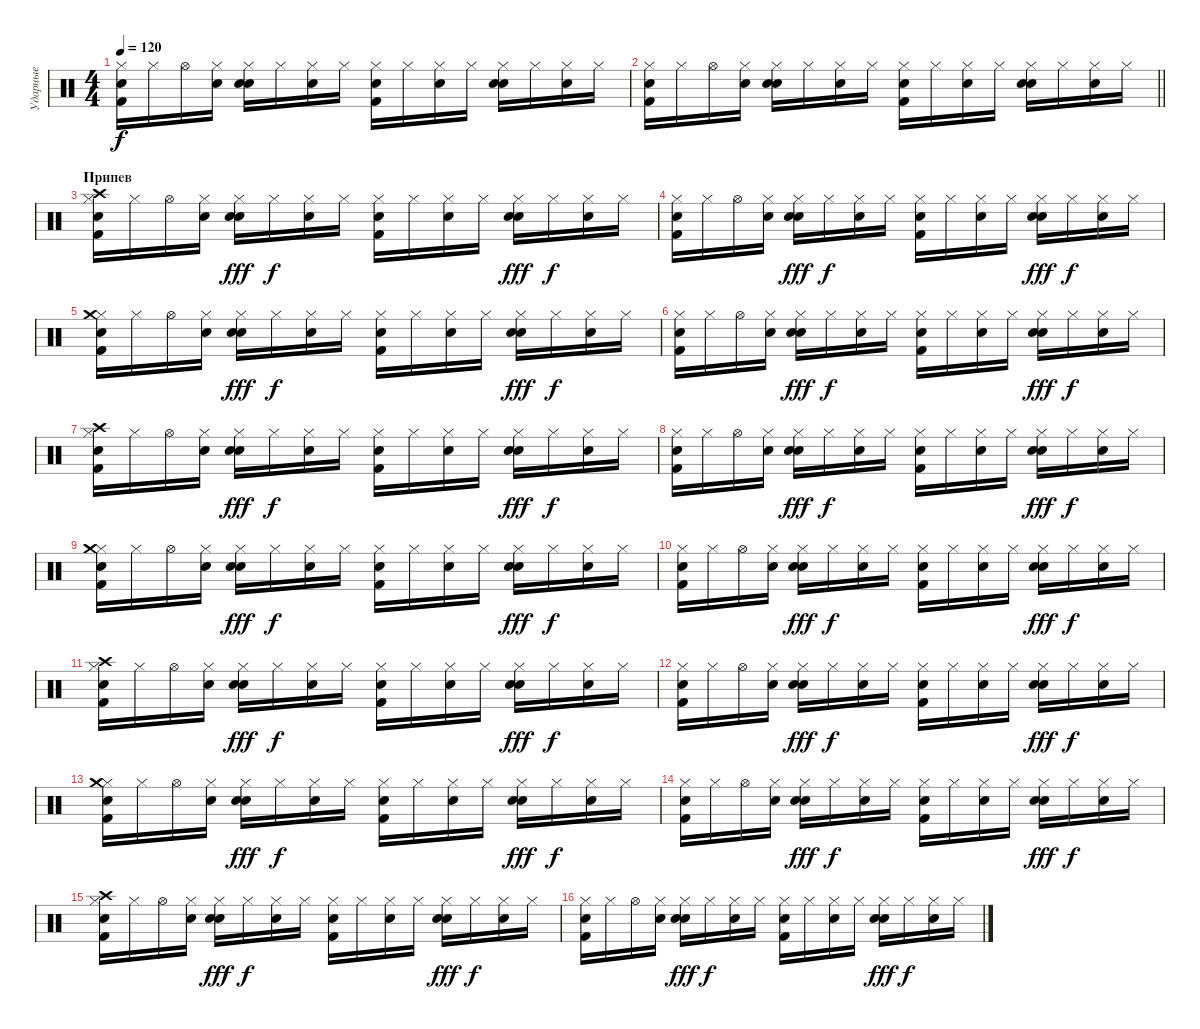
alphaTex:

\track ("Ударные" "Ударные") {instrument percussion}
\staff {score}
\articulation defaults
\ts (4 4)
\tempo 120
\clef neutral
\ks c
("Hi-Hat (closed)" "Snare (hit) 2" "Kick (hit) 2").16{dy f} "Hi-Hat (closed)".16 "Hi-Hat (open)".16 ("Hi-Hat (closed)" "Snare (hit) 2").16 ("Hi-Hat (closed)" "Snare (hit) 2" "Electric Snare (hit)").16 "Hi-Hat (closed)".16 ("Hi-Hat (closed)" "Snare (hit) 2").16 "Hi-Hat (closed)".16 ("Hi-Hat (closed)" "Snare (hit) 2" "Kick (hit) 2").16 "Hi-Hat (closed)".16 ("Hi-Hat (closed)" "Snare (hit) 2").16 "Hi-Hat (closed)".16 ("Hi-Hat (closed)" "Snare (hit) 2" "Electric Snare (hit)").16 "Hi-Hat (closed)".16 ("Hi-Hat (closed)" "Snare (hit) 2").16 "Hi-Hat (closed)".16 |
\barLineRight lightlight
("Hi-Hat (closed)" "Snare (hit) 2" "Kick (hit) 2").16 "Hi-Hat (closed)".16 "Hi-Hat (open)".16 ("Hi-Hat (closed)" "Snare (hit) 2").16 ("Hi-Hat (closed)" "Snare (hit) 2" "Electric Snare (hit)").16 "Hi-Hat (closed)".16 ("Hi-Hat (closed)" "Snare (hit) 2").16 "Hi-Hat (closed)".16 ("Hi-Hat (closed)" "Snare (hit) 2" "Kick (hit) 2").16 "Hi-Hat (closed)".16 ("Hi-Hat (closed)" "Snare (hit) 2").16 "Hi-Hat (closed)".16 ("Hi-Hat (closed)" "Snare (hit) 2" "Electric Snare (hit)").16 "Hi-Hat (closed)".16 ("Hi-Hat (closed)" "Snare (hit) 2").16 "Hi-Hat (closed)".16 |
\section ("" "Припев")
("Hi-Hat (closed)" "Snare (hit) 2" "Kick (hit) 2" "Crash high (hit)").16 "Hi-Hat (closed)".16 "Hi-Hat (open)".16 ("Hi-Hat (closed)" "Snare (hit) 2").16 ("Hi-Hat (closed)" "Electric Snare (hit)" "Snare (hit) 2").16{dy fff} "Hi-Hat (closed)".16{dy f} ("Hi-Hat (closed)" "Snare (hit) 2").16 "Hi-Hat (closed)".16 ("Hi-Hat (closed)" "Snare (hit) 2" "Kick (hit) 2").16 "Hi-Hat (closed)".16 ("Hi-Hat (closed)" "Snare (hit) 2").16 "Hi-Hat (closed)".16 ("Hi-Hat (closed)" "Electric Snare (hit)" "Snare (hit) 2").16{dy fff} "Hi-Hat (closed)".16{dy f} ("Hi-Hat (closed)" "Snare (hit) 2").16 "Hi-Hat (closed)".16 |
("Hi-Hat (closed)" "Snare (hit) 2" "Kick (hit) 2").16 "Hi-Hat (closed)".16 "Hi-Hat (open)".16 ("Hi-Hat (closed)" "Snare (hit) 2").16 ("Hi-Hat (closed)" "Electric Snare (hit)" "Snare (hit) 2").16{dy fff} "Hi-Hat (closed)".16{dy f} ("Hi-Hat (closed)" "Snare (hit) 2").16 "Hi-Hat (closed)".16 ("Hi-Hat (closed)" "Snare (hit) 2" "Kick (hit) 2").16 "Hi-Hat (closed)".16 ("Hi-Hat (closed)" "Snare (hit) 2").16 "Hi-Hat (closed)".16 ("Hi-Hat (closed)" "Electric Snare (hit)" "Snare (hit) 2").16{dy fff} "Hi-Hat (closed)".16{dy f} ("Hi-Hat (closed)" "Snare (hit) 2").16 "Hi-Hat (closed)".16 |
("Hi-Hat (closed)" "Snare (hit) 2" "Kick (hit) 2" "Crash medium (hit)").16 "Hi-Hat (closed)".16 "Hi-Hat (open)".16 ("Hi-Hat (closed)" "Snare (hit) 2").16 ("Hi-Hat (closed)" "Electric Snare (hit)" "Snare (hit) 2").16{dy fff} "Hi-Hat (closed)".16{dy f} ("Hi-Hat (closed)" "Snare (hit) 2").16 "Hi-Hat (closed)".16 ("Hi-Hat (closed)" "Snare (hit) 2" "Kick (hit) 2").16 "Hi-Hat (closed)".16 ("Hi-Hat (closed)" "Snare (hit) 2").16 "Hi-Hat (closed)".16 ("Hi-Hat (closed)" "Electric Snare (hit)" "Snare (hit) 2").16{dy fff} "Hi-Hat (closed)".16{dy f} ("Hi-Hat (closed)" "Snare (hit) 2").16 "Hi-Hat (closed)".16 |
("Hi-Hat (closed)" "Snare (hit) 2" "Kick (hit) 2").16 "Hi-Hat (closed)".16 "Hi-Hat (open)".16 ("Hi-Hat (closed)" "Snare (hit) 2").16 ("Hi-Hat (closed)" "Electric Snare (hit)" "Snare (hit) 2").16{dy fff} "Hi-Hat (closed)".16{dy f} ("Hi-Hat (closed)" "Snare (hit) 2").16 "Hi-Hat (closed)".16 ("Hi-Hat (closed)" "Snare (hit) 2" "Kick (hit) 2").16 "Hi-Hat (closed)".16 ("Hi-Hat (closed)" "Snare (hit) 2").16 "Hi-Hat (closed)".16 ("Hi-Hat (closed)" "Electric Snare (hit)" "Snare (hit) 2").16{dy fff} "Hi-Hat (closed)".16{dy f} ("Hi-Hat (closed)" "Snare (hit) 2").16 "Hi-Hat (closed)".16 |
("Hi-Hat (closed)" "Snare (hit) 2" "Kick (hit) 2" "Crash high (hit)").16 "Hi-Hat (closed)".16 "Hi-Hat (open)".16 ("Hi-Hat (closed)" "Snare (hit) 2").16 ("Hi-Hat (closed)" "Electric Snare (hit)" "Snare (hit) 2").16{dy fff} "Hi-Hat (closed)".16{dy f} ("Hi-Hat (closed)" "Snare (hit) 2").16 "Hi-Hat (closed)".16 ("Hi-Hat (closed)" "Snare (hit) 2" "Kick (hit) 2").16 "Hi-Hat (closed)".16 ("Hi-Hat (closed)" "Snare (hit) 2").16 "Hi-Hat (closed)".16 ("Hi-Hat (closed)" "Electric Snare (hit)" "Snare (hit) 2").16{dy fff} "Hi-Hat (closed)".16{dy f} ("Hi-Hat (closed)" "Snare (hit) 2").16 "Hi-Hat (closed)".16 |
("Hi-Hat (closed)" "Snare (hit) 2" "Kick (hit) 2").16 "Hi-Hat (closed)".16 "Hi-Hat (open)".16 ("Hi-Hat (closed)" "Snare (hit) 2").16 ("Hi-Hat (closed)" "Electric Snare (hit)" "Snare (hit) 2").16{dy fff} "Hi-Hat (closed)".16{dy f} ("Hi-Hat (closed)" "Snare (hit) 2").16 "Hi-Hat (closed)".16 ("Hi-Hat (closed)" "Snare (hit) 2" "Kick (hit) 2").16 "Hi-Hat (closed)".16 ("Hi-Hat (closed)" "Snare (hit) 2").16 "Hi-Hat (closed)".16 ("Hi-Hat (closed)" "Electric Snare (hit)" "Snare (hit) 2").16{dy fff} "Hi-Hat (closed)".16{dy f} ("Hi-Hat (closed)" "Snare (hit) 2").16 "Hi-Hat (closed)".16 |
("Hi-Hat (closed)" "Snare (hit) 2" "Kick (hit) 2" "Crash medium (hit)").16 "Hi-Hat (closed)".16 "Hi-Hat (open)".16 ("Hi-Hat (closed)" "Snare (hit) 2").16 ("Hi-Hat (closed)" "Electric Snare (hit)" "Snare (hit) 2").16{dy fff} "Hi-Hat (closed)".16{dy f} ("Hi-Hat (closed)" "Snare (hit) 2").16 "Hi-Hat (closed)".16 ("Hi-Hat (closed)" "Snare (hit) 2" "Kick (hit) 2").16 "Hi-Hat (closed)".16 ("Hi-Hat (closed)" "Snare (hit) 2").16 "Hi-Hat (closed)".16 ("Hi-Hat (closed)" "Electric Snare (hit)" "Snare (hit) 2").16{dy fff} "Hi-Hat (closed)".16{dy f} ("Hi-Hat (closed)" "Snare (hit) 2").16 "Hi-Hat (closed)".16 |
("Hi-Hat (closed)" "Snare (hit) 2" "Kick (hit) 2").16 "Hi-Hat (closed)".16 "Hi-Hat (open)".16 ("Hi-Hat (closed)" "Snare (hit) 2").16 ("Hi-Hat (closed)" "Electric Snare (hit)" "Snare (hit) 2").16{dy fff} "Hi-Hat (closed)".16{dy f} ("Hi-Hat (closed)" "Snare (hit) 2").16 "Hi-Hat (closed)".16 ("Hi-Hat (closed)" "Snare (hit) 2" "Kick (hit) 2").16 "Hi-Hat (closed)".16 ("Hi-Hat (closed)" "Snare (hit) 2").16 "Hi-Hat (closed)".16 ("Hi-Hat (closed)" "Electric Snare (hit)" "Snare (hit) 2").16{dy fff} "Hi-Hat (closed)".16{dy f} ("Hi-Hat (closed)" "Snare (hit) 2").16 "Hi-Hat (closed)".16 |
("Hi-Hat (closed)" "Snare (hit) 2" "Kick (hit) 2" "Crash high (hit)").16 "Hi-Hat (closed)".16 "Hi-Hat (open)".16 ("Hi-Hat (closed)" "Snare (hit) 2").16 ("Hi-Hat (closed)" "Electric Snare (hit)" "Snare (hit) 2").16{dy fff} "Hi-Hat (closed)".16{dy f} ("Hi-Hat (closed)" "Snare (hit) 2").16 "Hi-Hat (closed)".16 ("Hi-Hat (closed)" "Snare (hit) 2" "Kick (hit) 2").16 "Hi-Hat (closed)".16 ("Hi-Hat (closed)" "Snare (hit) 2").16 "Hi-Hat (closed)".16 ("Hi-Hat (closed)" "Electric Snare (hit)" "Snare (hit) 2").16{dy fff} "Hi-Hat (closed)".16{dy f} ("Hi-Hat (closed)" "Snare (hit) 2").16 "Hi-Hat (closed)".16 |
("Hi-Hat (closed)" "Snare (hit) 2" "Kick (hit) 2").16 "Hi-Hat (closed)".16 "Hi-Hat (open)".16 ("Hi-Hat (closed)" "Snare (hit) 2").16 ("Hi-Hat (closed)" "Electric Snare (hit)" "Snare (hit) 2").16{dy fff} "Hi-Hat (closed)".16{dy f} ("Hi-Hat (closed)" "Snare (hit) 2").16 "Hi-Hat (closed)".16 ("Hi-Hat (closed)" "Snare (hit) 2" "Kick (hit) 2").16 "Hi-Hat (closed)".16 ("Hi-Hat (closed)" "Snare (hit) 2").16 "Hi-Hat (closed)".16 ("Hi-Hat (closed)" "Electric Snare (hit)" "Snare (hit) 2").16{dy fff} "Hi-Hat (closed)".16{dy f} ("Hi-Hat (closed)" "Snare (hit) 2").16 "Hi-Hat (closed)".16 |
("Hi-Hat (closed)" "Snare (hit) 2" "Kick (hit) 2" "Crash medium (hit)").16 "Hi-Hat (closed)".16 "Hi-Hat (open)".16 ("Hi-Hat (closed)" "Snare (hit) 2").16 ("Hi-Hat (closed)" "Electric Snare (hit)" "Snare (hit) 2").16{dy fff} "Hi-Hat (closed)".16{dy f} ("Hi-Hat (closed)" "Snare (hit) 2").16 "Hi-Hat (closed)".16 ("Hi-Hat (closed)" "Snare (hit) 2" "Kick (hit) 2").16 "Hi-Hat (closed)".16 ("Hi-Hat (closed)" "Snare (hit) 2").16 "Hi-Hat (closed)".16 ("Hi-Hat (closed)" "Electric Snare (hit)" "Snare (hit) 2").16{dy fff} "Hi-Hat (closed)".16{dy f} ("Hi-Hat (closed)" "Snare (hit) 2").16 "Hi-Hat (closed)".16 |
("Hi-Hat (closed)" "Snare (hit) 2" "Kick (hit) 2").16 "Hi-Hat (closed)".16 "Hi-Hat (open)".16 ("Hi-Hat (closed)" "Snare (hit) 2").16 ("Hi-Hat (closed)" "Electric Snare (hit)" "Snare (hit) 2").16{dy fff} "Hi-Hat (closed)".16{dy f} ("Hi-Hat (closed)" "Snare (hit) 2").16 "Hi-Hat (closed)".16 ("Hi-Hat (closed)" "Snare (hit) 2" "Kick (hit) 2").16 "Hi-Hat (closed)".16 ("Hi-Hat (closed)" "Snare (hit) 2").16 "Hi-Hat (closed)".16 ("Hi-Hat (closed)" "Electric Snare (hit)" "Snare (hit) 2").16{dy fff} "Hi-Hat (closed)".16{dy f} ("Hi-Hat (closed)" "Snare (hit) 2").16 "Hi-Hat (closed)".16 |
("Hi-Hat (closed)" "Snare (hit) 2" "Kick (hit) 2" "Crash high (hit)").16 "Hi-Hat (closed)".16 "Hi-Hat (open)".16 ("Hi-Hat (closed)" "Snare (hit) 2").16 ("Hi-Hat (closed)" "Electric Snare (hit)" "Snare (hit) 2").16{dy fff} "Hi-Hat (closed)".16{dy f} ("Hi-Hat (closed)" "Snare (hit) 2").16 "Hi-Hat (closed)".16 ("Hi-Hat (closed)" "Snare (hit) 2" "Kick (hit) 2").16 "Hi-Hat (closed)".16 ("Hi-Hat (closed)" "Snare (hit) 2").16 "Hi-Hat (closed)".16 ("Hi-Hat (closed)" "Electric Snare (hit)" "Snare (hit) 2").16{dy fff} "Hi-Hat (closed)".16{dy f} ("Hi-Hat (closed)" "Snare (hit) 2").16 "Hi-Hat (closed)".16 |
("Hi-Hat (closed)" "Snare (hit) 2" "Kick (hit) 2").16 "Hi-Hat (closed)".16 "Hi-Hat (open)".16 ("Hi-Hat (closed)" "Snare (hit) 2").16 ("Hi-Hat (closed)" "Electric Snare (hit)" "Snare (hit) 2").16{dy fff} "Hi-Hat (closed)".16{dy f} ("Hi-Hat (closed)" "Snare (hit) 2").16 "Hi-Hat (closed)".16 ("Hi-Hat (closed)" "Snare (hit) 2" "Kick (hit) 2").16 "Hi-Hat (closed)".16 ("Hi-Hat (closed)" "Snare (hit) 2").16 "Hi-Hat (closed)".16 ("Hi-Hat (closed)" "Electric Snare (hit)" "Snare (hit) 2").16{dy fff} "Hi-Hat (closed)".16{dy f} ("Hi-Hat (closed)" "Snare (hit) 2").16 "Hi-Hat (closed)".16
